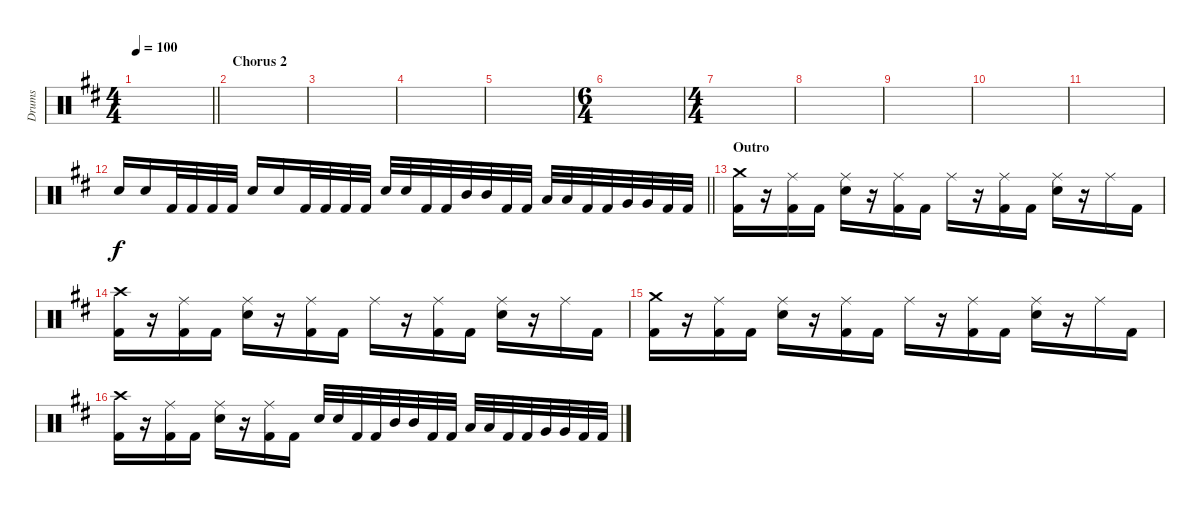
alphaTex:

\track ("Drums" "Drums") {instrument percussion}
\staff {score}
\articulation defaults
\ts (4 4)
\tempo 100
\clef neutral
\barLineRight lightlight
\ks d
|
\section ("" "Chorus 2")
|
|
|
|
\ts (6 4)
|
\ts (4 4)
|
|
|
|
|
\barLineRight lightlight "Snare (hit) 2".16 "Snare (hit) 2".16 "Kick (hit) 2".32 "Kick (hit) 2".32 "Kick (hit) 2".32 "Kick (hit) 2".32 "Snare (hit) 2".16 "Snare (hit) 2".16 "Kick (hit) 2".32 "Kick (hit) 2".32 "Kick (hit) 2".32 "Kick (hit) 2".32 "Snare (hit) 2".32 "Snare (hit) 2".32 "Kick (hit) 2".32 "Kick (hit) 2".32 "Mid Tom (hit)".32 "Mid Tom (hit)".32 "Kick (hit) 2".32 "Kick (hit) 2".32 "Low Tom (hit)".32 "Low Tom (hit)".32 "Kick (hit) 2".32 "Kick (hit) 2".32 "Very Low Tom (hit)".32 "Very Low Tom (hit)".32 "Kick (hit) 2".32 "Kick (hit) 2".32
|
\section ("" "Outro")
("Crash medium (hit)" "Kick (hit) 2").16 r.16 ("Ride (middle)" "Kick (hit) 2").16 "Kick (hit) 2".16 ("Ride (middle)" "Snare (hit) 2").16 r.16 ("Ride (middle)" "Kick (hit) 2").16 "Kick (hit) 2".16 "Ride (middle)".16 r.16 ("Ride (middle)" "Kick (hit) 2").16 "Kick (hit) 2".16 ("Ride (middle)" "Snare (hit) 2").16 r.16 "Ride (middle)".16 "Kick (hit) 2".16 |
("Crash high (hit)" "Kick (hit) 2").16 r.16 ("Ride (middle)" "Kick (hit) 2").16 "Kick (hit) 2".16 ("Ride (middle)" "Snare (hit) 2").16 r.16 ("Ride (middle)" "Kick (hit) 2").16 "Kick (hit) 2".16 "Ride (middle)".16 r.16 ("Ride (middle)" "Kick (hit) 2").16 "Kick (hit) 2".16 ("Ride (middle)" "Snare (hit) 2").16 r.16 "Ride (middle)".16 "Kick (hit) 2".16 |
("Crash medium (hit)" "Kick (hit) 2").16 r.16 ("Ride (middle)" "Kick (hit) 2").16 "Kick (hit) 2".16 ("Ride (middle)" "Snare (hit) 2").16 r.16 ("Ride (middle)" "Kick (hit) 2").16 "Kick (hit) 2".16 "Ride (middle)".16 r.16 ("Ride (middle)" "Kick (hit) 2").16 "Kick (hit) 2".16 ("Ride (middle)" "Snare (hit) 2").16 r.16 "Ride (middle)".16 "Kick (hit) 2".16 |
("Crash high (hit)" "Kick (hit) 2").16 r.16 ("Ride (middle)" "Kick (hit) 2").16 "Kick (hit) 2".16 ("Ride (middle)" "Snare (hit) 2").16 r.16 ("Ride (middle)" "Kick (hit) 2").16 "Kick (hit) 2".16 "Snare (hit) 2".32 "Snare (hit) 2".32 "Kick (hit) 2".32 "Kick (hit) 2".32 "Mid Tom (hit)".32 "Mid Tom (hit)".32 "Kick (hit) 2".32 "Kick (hit) 2".32 "Low Tom (hit)".32 "Low Tom (hit)".32 "Kick (hit) 2".32 "Kick (hit) 2".32 "Very Low Tom (hit)".32 "Very Low Tom (hit)".32 "Kick (hit) 2".32 "Kick (hit) 2".32
